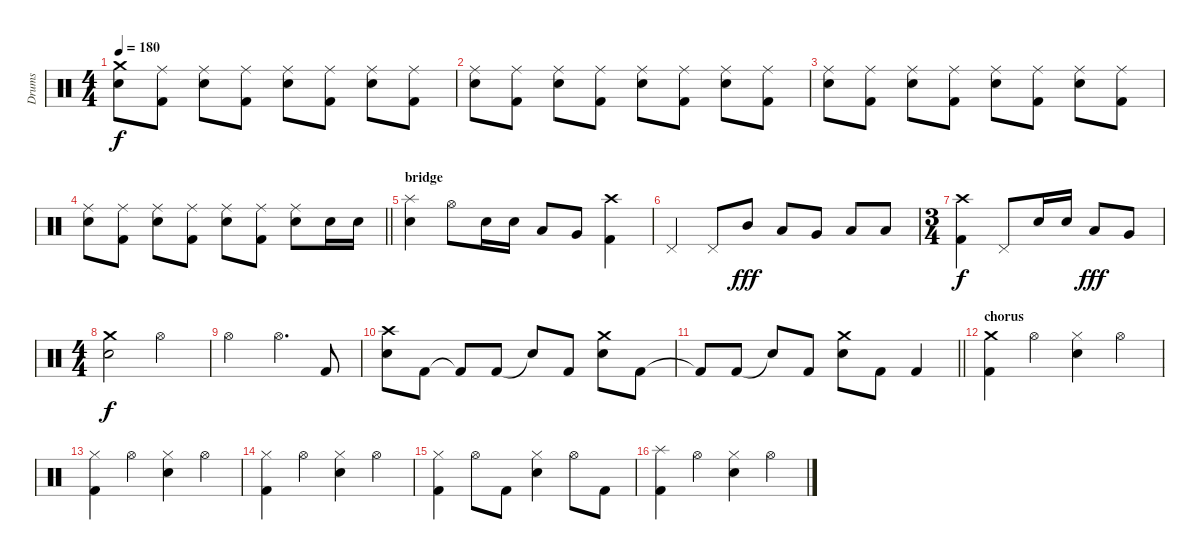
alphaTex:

\track ("Drums" "Drums") {instrument percussion}
\staff {score}
\articulation defaults
\ts (4 4)
\tempo 180
\clef neutral
\ks c
("Crash medium (hit)" "Snare (hit) 2").8{dy f} ("Kick (hit) 2" "Ride (middle)").8 ("Ride (middle)" "Snare (hit) 2").8 ("Kick (hit) 2" "Ride (middle)").8 ("Ride (middle)" "Snare (hit) 2").8 ("Kick (hit) 2" "Ride (middle)").8 ("Ride (middle)" "Snare (hit) 2").8 ("Kick (hit) 2" "Ride (middle)").8 |
("Ride (middle)" "Snare (hit) 2").8 ("Kick (hit) 2" "Ride (middle)").8 ("Ride (middle)" "Snare (hit) 2").8 ("Kick (hit) 2" "Ride (middle)").8 ("Ride (middle)" "Snare (hit) 2").8 ("Kick (hit) 2" "Ride (middle)").8 ("Ride (middle)" "Snare (hit) 2").8 ("Kick (hit) 2" "Ride (middle)").8 |
("Ride (middle)" "Snare (hit) 2").8 ("Kick (hit) 2" "Ride (middle)").8 ("Ride (middle)" "Snare (hit) 2").8 ("Kick (hit) 2" "Ride (middle)").8 ("Ride (middle)" "Snare (hit) 2").8 ("Kick (hit) 2" "Ride (middle)").8 ("Ride (middle)" "Snare (hit) 2").8 ("Kick (hit) 2" "Ride (middle)").8 |
\barLineRight lightlight
("Ride (middle)" "Snare (hit) 2").8 ("Kick (hit) 2" "Ride (middle)").8 ("Ride (middle)" "Snare (hit) 2").8 ("Kick (hit) 2" "Ride (middle)").8 ("Ride (middle)" "Snare (hit) 2").8 ("Kick (hit) 2" "Ride (middle)").8 ("Ride (middle)" "Snare (hit) 2").8 "Snare (hit) 2".16 "Snare (hit) 2".16 |
\section ("" "bridge")
("Splash (hit)" "Snare (hit) 2").4 "Hi-Hat (open)".8 "Snare (hit) 2".16 "Snare (hit) 2".16 "Low Tom (hit)".8 "Very Low Tom (hit)".8 ("Kick (hit) 2" "Crash high (hit)").4 |
"Pedal Hi-Hat (hit)".4 "Pedal Hi-Hat (hit)".8 "Mid Tom (hit)".8{dy fff} "Low Tom (hit)".8 "Very Low Tom (hit)".8 "Low Floor Tom (hit)".8 "Low Floor Tom (hit)".8 |
\ts (3 4)
("Kick (hit) 2" "Crash high (hit)").4{dy f} "Pedal Hi-Hat (hit)".8 "Snare (hit) 2".16 "Snare (hit) 2".16 "Low Tom (hit)".8{dy fff} "Very Low Tom (hit)".8 |
\ts (4 4)
("Crash medium (hit)" "Snare (hit) 2").2{dy f} "Hi-Hat (open)".2 |
"Hi-Hat (open)".2 "Hi-Hat (open)".4{d} "Kick (hit) 2".8 |
("Crash high (hit)" "Snare (hit) 2").8 "Kick (hit) 2".8 "Kick (hit) 2"{t}.8 "Kick (hit) 2".8 "Snare (hit)"{t}.8 "Kick (hit) 2".8 ("Crash medium (hit)" "Snare (hit) 2").8 "Kick (hit) 2".8 |
\barLineRight lightlight "Kick (hit) 2"{t}.8 "Kick (hit) 2".8 "Snare (hit)"{t}.8 "Kick (hit) 2".8
("Crash medium (hit)" "Snare (hit) 2").8 "Kick (hit) 2".8 "Kick (hit) 2".4 |
\section ("" "chorus")
("Kick (hit) 2" "Crash medium (hit)").4 "Hi-Hat (open)".4 ("Hi-Hat (closed)" "Snare (hit) 2").4 "Hi-Hat (open)".4 |
("Kick (hit) 2" "Hi-Hat (closed)").4 "Hi-Hat (open)".4 ("Hi-Hat (closed)" "Snare (hit) 2").4 "Hi-Hat (open)".4 |
("Kick (hit) 2" "Hi-Hat (closed)").4 "Hi-Hat (open)".4 ("Hi-Hat (closed)" "Snare (hit) 2").4 "Hi-Hat (open)".4 |
("Kick (hit) 2" "Hi-Hat (closed)").4 "Hi-Hat (open)".8 "Kick (hit) 2".8 ("Hi-Hat (closed)" "Snare (hit) 2").4 "Hi-Hat (open)".8 "Kick (hit) 2".8 |
("Kick (hit) 2" "Splash (hit)").4 "Hi-Hat (open)".4 ("Hi-Hat (closed)" "Snare (hit) 2").4 "Hi-Hat (open)".4
